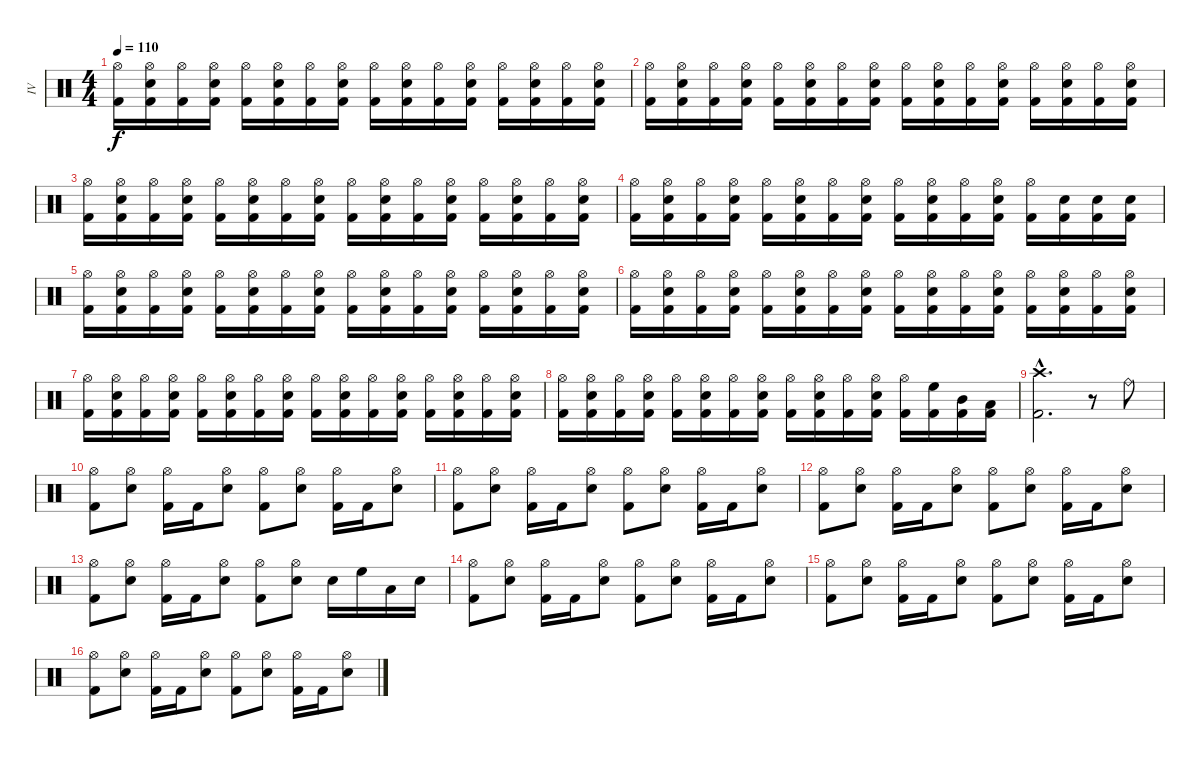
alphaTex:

\track ("IV" "IV") {instrument percussion}
\staff {score}
\articulation defaults
\ts (4 4)
\tempo 110
\clef neutral
\ks c
("Hi-Hat (open)" "Kick (hit) 2").16{dy f} ("Hi-Hat (open)" "Snare (hit) 2" "Kick (hit) 2").16 ("Hi-Hat (open)" "Kick (hit) 2").16 ("Hi-Hat (open)" "Snare (hit) 2" "Kick (hit) 2").16 ("Hi-Hat (open)" "Kick (hit) 2").16 ("Hi-Hat (open)" "Snare (hit) 2" "Kick (hit) 2").16 ("Hi-Hat (open)" "Kick (hit) 2").16 ("Hi-Hat (open)" "Snare (hit) 2" "Kick (hit) 2").16 ("Hi-Hat (open)" "Kick (hit) 2").16 ("Hi-Hat (open)" "Snare (hit) 2" "Kick (hit) 2").16 ("Hi-Hat (open)" "Kick (hit) 2").16 ("Hi-Hat (open)" "Snare (hit) 2" "Kick (hit) 2").16 ("Hi-Hat (open)" "Kick (hit) 2").16 ("Hi-Hat (open)" "Snare (hit) 2" "Kick (hit) 2").16 ("Hi-Hat (open)" "Kick (hit) 2").16 ("Hi-Hat (open)" "Snare (hit) 2" "Kick (hit) 2").16 |
("Hi-Hat (open)" "Kick (hit) 2").16 ("Hi-Hat (open)" "Snare (hit) 2" "Kick (hit) 2").16 ("Hi-Hat (open)" "Kick (hit) 2").16 ("Hi-Hat (open)" "Snare (hit) 2" "Kick (hit) 2").16 ("Hi-Hat (open)" "Kick (hit) 2").16 ("Hi-Hat (open)" "Snare (hit) 2" "Kick (hit) 2").16 ("Hi-Hat (open)" "Kick (hit) 2").16 ("Hi-Hat (open)" "Snare (hit) 2" "Kick (hit) 2").16 ("Hi-Hat (open)" "Kick (hit) 2").16 ("Hi-Hat (open)" "Snare (hit) 2" "Kick (hit) 2").16 ("Hi-Hat (open)" "Kick (hit) 2").16 ("Hi-Hat (open)" "Snare (hit) 2" "Kick (hit) 2").16 ("Hi-Hat (open)" "Kick (hit) 2").16 ("Hi-Hat (open)" "Snare (hit) 2" "Kick (hit) 2").16 ("Hi-Hat (open)" "Kick (hit) 2").16 ("Hi-Hat (open)" "Snare (hit) 2" "Kick (hit) 2").16 |
("Hi-Hat (open)" "Kick (hit) 2").16 ("Hi-Hat (open)" "Snare (hit) 2" "Kick (hit) 2").16 ("Hi-Hat (open)" "Kick (hit) 2").16 ("Hi-Hat (open)" "Snare (hit) 2" "Kick (hit) 2").16 ("Hi-Hat (open)" "Kick (hit) 2").16 ("Hi-Hat (open)" "Snare (hit) 2" "Kick (hit) 2").16 ("Hi-Hat (open)" "Kick (hit) 2").16 ("Hi-Hat (open)" "Snare (hit) 2" "Kick (hit) 2").16 ("Hi-Hat (open)" "Kick (hit) 2").16 ("Hi-Hat (open)" "Snare (hit) 2" "Kick (hit) 2").16 ("Hi-Hat (open)" "Kick (hit) 2").16 ("Hi-Hat (open)" "Snare (hit) 2" "Kick (hit) 2").16 ("Hi-Hat (open)" "Kick (hit) 2").16 ("Hi-Hat (open)" "Snare (hit) 2" "Kick (hit) 2").16 ("Hi-Hat (open)" "Kick (hit) 2").16 ("Hi-Hat (open)" "Snare (hit) 2" "Kick (hit) 2").16 |
("Hi-Hat (open)" "Kick (hit) 2").16 ("Hi-Hat (open)" "Snare (hit) 2" "Kick (hit) 2").16 ("Hi-Hat (open)" "Kick (hit) 2").16 ("Hi-Hat (open)" "Snare (hit) 2" "Kick (hit) 2").16 ("Hi-Hat (open)" "Kick (hit) 2").16 ("Hi-Hat (open)" "Snare (hit) 2" "Kick (hit) 2").16 ("Hi-Hat (open)" "Kick (hit) 2").16 ("Hi-Hat (open)" "Snare (hit) 2" "Kick (hit) 2").16 ("Hi-Hat (open)" "Kick (hit) 2").16 ("Hi-Hat (open)" "Snare (hit) 2" "Kick (hit) 2").16 ("Hi-Hat (open)" "Kick (hit) 2").16 ("Hi-Hat (open)" "Snare (hit) 2" "Kick (hit) 2").16 ("Hi-Hat (open)" "Kick (hit) 2").16 ("Snare (hit) 2" "Kick (hit) 2").16 ("Snare (hit) 2" "Kick (hit) 2").16 ("Snare (hit) 2" "Kick (hit) 2").16 |
("Hi-Hat (open)" "Kick (hit) 2").16 ("Hi-Hat (open)" "Snare (hit) 2" "Kick (hit) 2").16 ("Hi-Hat (open)" "Kick (hit) 2").16 ("Hi-Hat (open)" "Snare (hit) 2" "Kick (hit) 2").16 ("Hi-Hat (open)" "Kick (hit) 2").16 ("Hi-Hat (open)" "Snare (hit) 2" "Kick (hit) 2").16 ("Hi-Hat (open)" "Kick (hit) 2").16 ("Hi-Hat (open)" "Snare (hit) 2" "Kick (hit) 2").16 ("Hi-Hat (open)" "Kick (hit) 2").16 ("Hi-Hat (open)" "Snare (hit) 2" "Kick (hit) 2").16 ("Hi-Hat (open)" "Kick (hit) 2").16 ("Hi-Hat (open)" "Snare (hit) 2" "Kick (hit) 2").16 ("Hi-Hat (open)" "Kick (hit) 2").16 ("Hi-Hat (open)" "Snare (hit) 2" "Kick (hit) 2").16 ("Hi-Hat (open)" "Kick (hit) 2").16 ("Hi-Hat (open)" "Snare (hit) 2" "Kick (hit) 2").16 |
("Hi-Hat (open)" "Kick (hit) 2").16 ("Hi-Hat (open)" "Snare (hit) 2" "Kick (hit) 2").16 ("Hi-Hat (open)" "Kick (hit) 2").16 ("Hi-Hat (open)" "Snare (hit) 2" "Kick (hit) 2").16 ("Hi-Hat (open)" "Kick (hit) 2").16 ("Hi-Hat (open)" "Snare (hit) 2" "Kick (hit) 2").16 ("Hi-Hat (open)" "Kick (hit) 2").16 ("Hi-Hat (open)" "Snare (hit) 2" "Kick (hit) 2").16 ("Hi-Hat (open)" "Kick (hit) 2").16 ("Hi-Hat (open)" "Snare (hit) 2" "Kick (hit) 2").16 ("Hi-Hat (open)" "Kick (hit) 2").16 ("Hi-Hat (open)" "Snare (hit) 2" "Kick (hit) 2").16 ("Hi-Hat (open)" "Kick (hit) 2").16 ("Hi-Hat (open)" "Snare (hit) 2" "Kick (hit) 2").16 ("Hi-Hat (open)" "Kick (hit) 2").16 ("Hi-Hat (open)" "Snare (hit) 2" "Kick (hit) 2").16 |
("Hi-Hat (open)" "Kick (hit) 2").16 ("Hi-Hat (open)" "Snare (hit) 2" "Kick (hit) 2").16 ("Hi-Hat (open)" "Kick (hit) 2").16 ("Hi-Hat (open)" "Snare (hit) 2" "Kick (hit) 2").16 ("Hi-Hat (open)" "Kick (hit) 2").16 ("Hi-Hat (open)" "Snare (hit) 2" "Kick (hit) 2").16 ("Hi-Hat (open)" "Kick (hit) 2").16 ("Hi-Hat (open)" "Snare (hit) 2" "Kick (hit) 2").16 ("Hi-Hat (open)" "Kick (hit) 2").16 ("Hi-Hat (open)" "Snare (hit) 2" "Kick (hit) 2").16 ("Hi-Hat (open)" "Kick (hit) 2").16 ("Hi-Hat (open)" "Snare (hit) 2" "Kick (hit) 2").16 ("Hi-Hat (open)" "Kick (hit) 2").16 ("Hi-Hat (open)" "Snare (hit) 2" "Kick (hit) 2").16 ("Hi-Hat (open)" "Kick (hit) 2").16 ("Hi-Hat (open)" "Snare (hit) 2" "Kick (hit) 2").16 |
("Hi-Hat (open)" "Kick (hit) 2").16 ("Hi-Hat (open)" "Snare (hit) 2" "Kick (hit) 2").16 ("Hi-Hat (open)" "Kick (hit) 2").16 ("Hi-Hat (open)" "Snare (hit) 2" "Kick (hit) 2").16 ("Hi-Hat (open)" "Kick (hit) 2").16 ("Hi-Hat (open)" "Snare (hit) 2" "Kick (hit) 2").16 ("Hi-Hat (open)" "Kick (hit) 2").16 ("Hi-Hat (open)" "Snare (hit) 2" "Kick (hit) 2").16 ("Hi-Hat (open)" "Kick (hit) 2").16 ("Hi-Hat (open)" "Snare (hit) 2" "Kick (hit) 2").16 ("Hi-Hat (open)" "Kick (hit) 2").16 ("Hi-Hat (open)" "Snare (hit) 2" "Kick (hit) 2").16 ("Hi-Hat (open)" "Kick (hit) 2").16 ("High Floor Tom (hit)" "Kick (hit) 2").16 ("Mid Tom (hit)" "Kick (hit) 2").16 ("Low Tom (hit)" "Kick (hit) 2").16 |
("Crash high (hit)"{hac} "Kick (hit) 2"{hac}).2{d} r.8 "Ride (bell)".8 |
("Hi-Hat (open)" "Kick (hit) 2").8 ("Hi-Hat (open)" "Snare (hit) 2").8 ("Hi-Hat (open)" "Kick (hit) 2").16 "Kick (hit) 2".16 ("Hi-Hat (open)" "Snare (hit) 2").8 ("Hi-Hat (open)" "Kick (hit) 2").8 ("Hi-Hat (open)" "Snare (hit) 2").8 ("Hi-Hat (open)" "Kick (hit) 2").16 "Kick (hit) 2".16 ("Hi-Hat (open)" "Snare (hit) 2").8 |
("Hi-Hat (open)" "Kick (hit) 2").8 ("Hi-Hat (open)" "Snare (hit) 2").8 ("Hi-Hat (open)" "Kick (hit) 2").16 "Kick (hit) 2".16 ("Hi-Hat (open)" "Snare (hit) 2").8 ("Hi-Hat (open)" "Kick (hit) 2").8 ("Hi-Hat (open)" "Snare (hit) 2").8 ("Hi-Hat (open)" "Kick (hit) 2").16 "Kick (hit) 2".16 ("Hi-Hat (open)" "Snare (hit) 2").8 |
("Hi-Hat (open)" "Kick (hit) 2").8 ("Hi-Hat (open)" "Snare (hit) 2").8 ("Hi-Hat (open)" "Kick (hit) 2").16 "Kick (hit) 2".16 ("Hi-Hat (open)" "Snare (hit) 2").8 ("Hi-Hat (open)" "Kick (hit) 2").8 ("Hi-Hat (open)" "Snare (hit) 2").8 ("Hi-Hat (open)" "Kick (hit) 2").16 "Kick (hit) 2".16 ("Hi-Hat (open)" "Snare (hit) 2").8 |
("Hi-Hat (open)" "Kick (hit) 2").8 ("Hi-Hat (open)" "Snare (hit) 2").8 ("Hi-Hat (open)" "Kick (hit) 2").16 "Kick (hit) 2".16 ("Hi-Hat (open)" "Snare (hit) 2").8 ("Hi-Hat (open)" "Kick (hit) 2").8 ("Hi-Hat (open)" "Snare (hit) 2").8 "Snare (hit) 2".16 "High Floor Tom (hit)".16 "Low Tom (hit)".16 "Snare (hit) 2".16 |
("Hi-Hat (open)" "Kick (hit) 2").8 ("Hi-Hat (open)" "Snare (hit) 2").8 ("Hi-Hat (open)" "Kick (hit) 2").16 "Kick (hit) 2".16 ("Hi-Hat (open)" "Snare (hit) 2").8 ("Hi-Hat (open)" "Kick (hit) 2").8 ("Hi-Hat (open)" "Snare (hit) 2").8 ("Hi-Hat (open)" "Kick (hit) 2").16 "Kick (hit) 2".16 ("Hi-Hat (open)" "Snare (hit) 2").8 |
("Hi-Hat (open)" "Kick (hit) 2").8 ("Hi-Hat (open)" "Snare (hit) 2").8 ("Hi-Hat (open)" "Kick (hit) 2").16 "Kick (hit) 2".16 ("Hi-Hat (open)" "Snare (hit) 2").8 ("Hi-Hat (open)" "Kick (hit) 2").8 ("Hi-Hat (open)" "Snare (hit) 2").8 ("Hi-Hat (open)" "Kick (hit) 2").16 "Kick (hit) 2".16 ("Hi-Hat (open)" "Snare (hit) 2").8 |
("Hi-Hat (open)" "Kick (hit) 2").8 ("Hi-Hat (open)" "Snare (hit) 2").8 ("Hi-Hat (open)" "Kick (hit) 2").16 "Kick (hit) 2".16 ("Hi-Hat (open)" "Snare (hit) 2").8 ("Hi-Hat (open)" "Kick (hit) 2").8 ("Hi-Hat (open)" "Snare (hit) 2").8 ("Hi-Hat (open)" "Kick (hit) 2").16 "Kick (hit) 2".16 ("Hi-Hat (open)" "Snare (hit) 2").8
